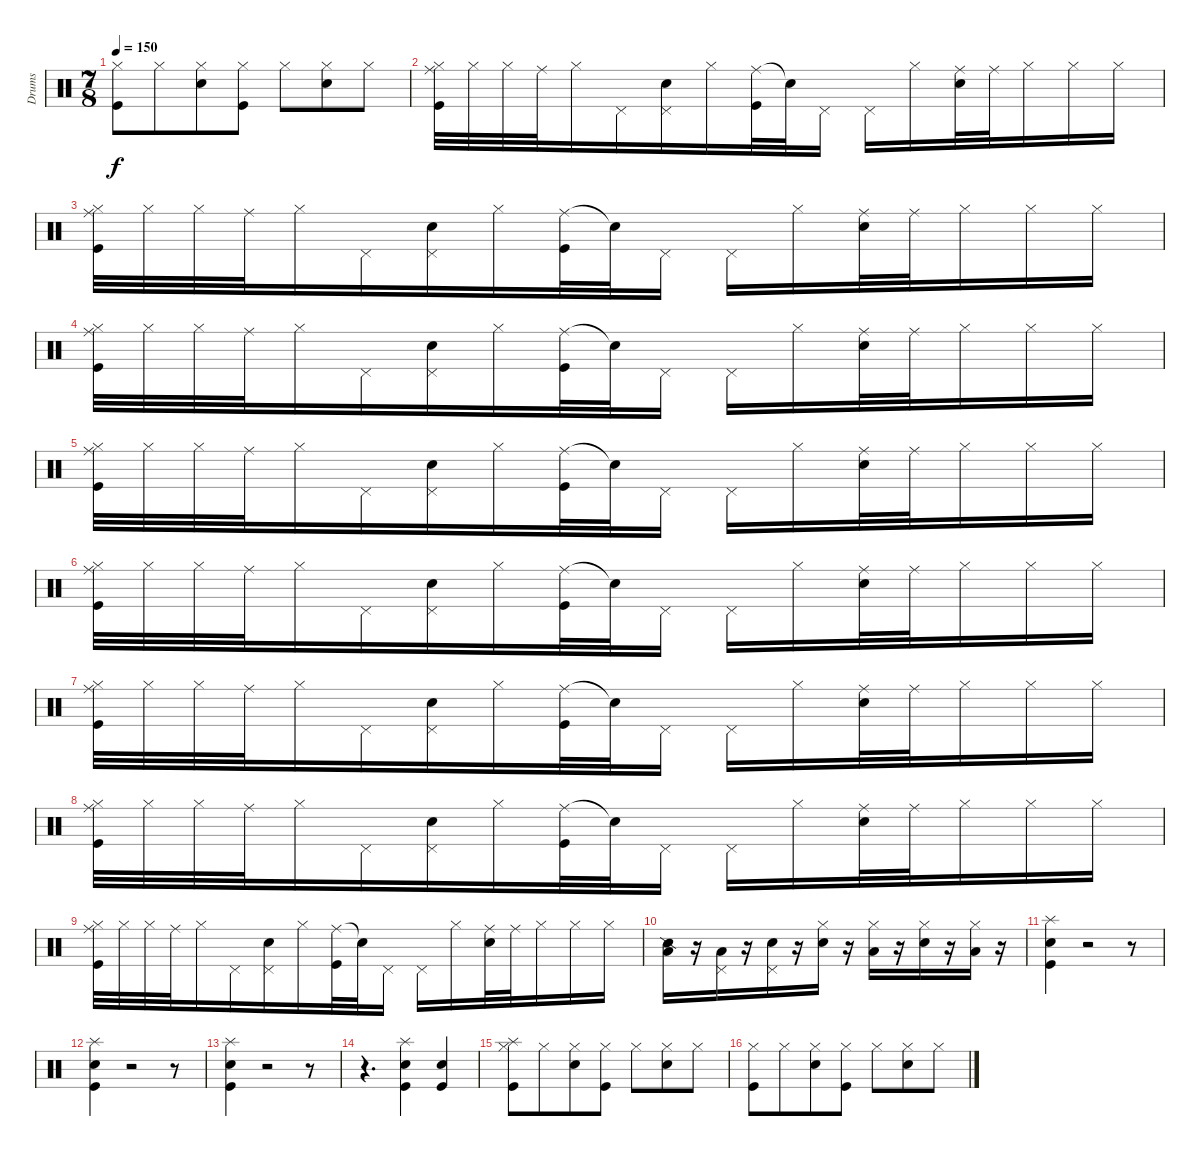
\track ("Drums" "Drums") {instrument percussion}
\staff {score}
\articulation defaults
\ts (7 8)
\tempo 150
\clef neutral
\ks c
("Kick (hit)" "Hi-Hat (closed)").8{dy f} "Hi-Hat (closed)".8 ("Snare (hit) 2" "Hi-Hat (closed)").8 ("Kick (hit)" "Hi-Hat (closed)").8 "Hi-Hat (closed)".8 ("Snare (hit) 2" "Hi-Hat (closed)").8 "Hi-Hat (closed)".8 |
("Hi-Hat (closed)" "Ride (middle)" "Kick (hit)").32 "Hi-Hat (closed)".32 "Hi-Hat (closed)".32 "Ride (middle)".32 "Hi-Hat (closed)".16 "Pedal Hi-Hat (hit)".16 ("Pedal Hi-Hat (hit)" "Snare (hit) 2").16 "Hi-Hat (closed)".16 ("Ride (middle)" "Kick (hit)").32 "Snare (hit)"{t}.32 "Pedal Hi-Hat (hit)".16 "Pedal Hi-Hat (hit)".16 "Hi-Hat (closed)".16 ("Ride (middle)" "Snare (hit) 2").32 "Ride (middle)".32 "Hi-Hat (closed)".16 "Hi-Hat (closed)".16 "Hi-Hat (closed)".16 |
("Hi-Hat (closed)" "Ride (middle)" "Kick (hit)").32 "Hi-Hat (closed)".32 "Hi-Hat (closed)".32 "Ride (middle)".32 "Hi-Hat (closed)".16 "Pedal Hi-Hat (hit)".16 ("Pedal Hi-Hat (hit)" "Snare (hit) 2").16 "Hi-Hat (closed)".16 ("Ride (middle)" "Kick (hit)").32 "Snare (hit)"{t}.32 "Pedal Hi-Hat (hit)".16 "Pedal Hi-Hat (hit)".16 "Hi-Hat (closed)".16 ("Ride (middle)" "Snare (hit) 2").32 "Ride (middle)".32 "Hi-Hat (closed)".16 "Hi-Hat (closed)".16 "Hi-Hat (closed)".16 |
("Hi-Hat (closed)" "Ride (middle)" "Kick (hit)").32 "Hi-Hat (closed)".32 "Hi-Hat (closed)".32 "Ride (middle)".32 "Hi-Hat (closed)".16 "Pedal Hi-Hat (hit)".16 ("Pedal Hi-Hat (hit)" "Snare (hit) 2").16 "Hi-Hat (closed)".16 ("Ride (middle)" "Kick (hit)").32 "Snare (hit)"{t}.32 "Pedal Hi-Hat (hit)".16 "Pedal Hi-Hat (hit)".16 "Hi-Hat (closed)".16 ("Ride (middle)" "Snare (hit) 2").32 "Ride (middle)".32 "Hi-Hat (closed)".16 "Hi-Hat (closed)".16 "Hi-Hat (closed)".16 |
("Hi-Hat (closed)" "Ride (middle)" "Kick (hit)").32 "Hi-Hat (closed)".32 "Hi-Hat (closed)".32 "Ride (middle)".32 "Hi-Hat (closed)".16 "Pedal Hi-Hat (hit)".16 ("Pedal Hi-Hat (hit)" "Snare (hit) 2").16 "Hi-Hat (closed)".16 ("Ride (middle)" "Kick (hit)").32 "Snare (hit)"{t}.32 "Pedal Hi-Hat (hit)".16 "Pedal Hi-Hat (hit)".16 "Hi-Hat (closed)".16 ("Ride (middle)" "Snare (hit) 2").32 "Ride (middle)".32 "Hi-Hat (closed)".16 "Hi-Hat (closed)".16 "Hi-Hat (closed)".16 |
("Hi-Hat (closed)" "Ride (middle)" "Kick (hit)").32 "Hi-Hat (closed)".32 "Hi-Hat (closed)".32 "Ride (middle)".32 "Hi-Hat (closed)".16 "Pedal Hi-Hat (hit)".16 ("Pedal Hi-Hat (hit)" "Snare (hit) 2").16 "Hi-Hat (closed)".16 ("Ride (middle)" "Kick (hit)").32 "Snare (hit)"{t}.32 "Pedal Hi-Hat (hit)".16 "Pedal Hi-Hat (hit)".16 "Hi-Hat (closed)".16 ("Ride (middle)" "Snare (hit) 2").32 "Ride (middle)".32 "Hi-Hat (closed)".16 "Hi-Hat (closed)".16 "Hi-Hat (closed)".16 |
("Hi-Hat (closed)" "Ride (middle)" "Kick (hit)").32 "Hi-Hat (closed)".32 "Hi-Hat (closed)".32 "Ride (middle)".32 "Hi-Hat (closed)".16 "Pedal Hi-Hat (hit)".16 ("Pedal Hi-Hat (hit)" "Snare (hit) 2").16 "Hi-Hat (closed)".16 ("Ride (middle)" "Kick (hit)").32 "Snare (hit)"{t}.32 "Pedal Hi-Hat (hit)".16 "Pedal Hi-Hat (hit)".16 "Hi-Hat (closed)".16 ("Ride (middle)" "Snare (hit) 2").32 "Ride (middle)".32 "Hi-Hat (closed)".16 "Hi-Hat (closed)".16 "Hi-Hat (closed)".16 |
("Hi-Hat (closed)" "Ride (middle)" "Kick (hit)").32 "Hi-Hat (closed)".32 "Hi-Hat (closed)".32 "Ride (middle)".32 "Hi-Hat (closed)".16 "Pedal Hi-Hat (hit)".16 ("Pedal Hi-Hat (hit)" "Snare (hit) 2").16 "Hi-Hat (closed)".16 ("Ride (middle)" "Kick (hit)").32 "Snare (hit)"{t}.32 "Pedal Hi-Hat (hit)".16 "Pedal Hi-Hat (hit)".16 "Hi-Hat (closed)".16 ("Ride (middle)" "Snare (hit) 2").32 "Ride (middle)".32 "Hi-Hat (closed)".16 "Hi-Hat (closed)".16 "Hi-Hat (closed)".16 |
("Hi-Hat (closed)" "Ride (middle)" "Kick (hit)").32 "Hi-Hat (closed)".32 "Hi-Hat (closed)".32 "Ride (middle)".32 "Hi-Hat (closed)".16 "Pedal Hi-Hat (hit)".16 ("Pedal Hi-Hat (hit)" "Snare (hit) 2").16 "Hi-Hat (closed)".16 ("Ride (middle)" "Kick (hit)").32 "Snare (hit)"{t}.32 "Pedal Hi-Hat (hit)".16 "Pedal Hi-Hat (hit)".16 "Hi-Hat (closed)".16 ("Ride (middle)" "Snare (hit) 2").32 "Ride (middle)".32 "Hi-Hat (closed)".16 "Hi-Hat (closed)".16 "Hi-Hat (closed)".16 |
("Low Tom (hit)" "Snare (side stick) 2").16 r.16 ("Pedal Hi-Hat (hit)" "Low Tom (hit)").16 r.16 ("Pedal Hi-Hat (hit)" "Snare (hit) 2").16 r.16 ("Hi-Hat (closed)" "Snare (hit) 2").16 r.16 ("Hi-Hat (closed)" "Low Tom (hit)").16 r.16 ("Hi-Hat (closed)" "Snare (hit) 2").16 r.16 ("Hi-Hat (closed)" "Low Tom (hit)").16 r.16 |
("Splash (hit)" "Snare (hit) 2" "Kick (hit)").4 r.2 r.8 |
("Splash (hit)" "Snare (hit) 2" "Kick (hit)").4 r.2 r.8 |
("Splash (hit)" "Snare (hit) 2" "Kick (hit)").4 r.2 r.8 |
r.4{d} ("Splash (hit)" "Snare (hit) 2" "Kick (hit)").4 ("Snare (hit) 2" "Kick (hit)").4 |
("Splash (hit)" "Kick (hit)" "Hi-Hat (closed)").8 "Hi-Hat (closed)".8 ("Snare (hit) 2" "Hi-Hat (closed)").8 ("Kick (hit)" "Hi-Hat (closed)").8 "Hi-Hat (closed)".8 ("Snare (hit) 2" "Hi-Hat (closed)").8 "Hi-Hat (closed)".8 |
("Kick (hit)" "Hi-Hat (closed)").8 "Hi-Hat (closed)".8 ("Snare (hit) 2" "Hi-Hat (closed)").8 ("Kick (hit)" "Hi-Hat (closed)").8 "Hi-Hat (closed)".8 ("Snare (hit) 2" "Hi-Hat (closed)").8 "Hi-Hat (closed)".8
